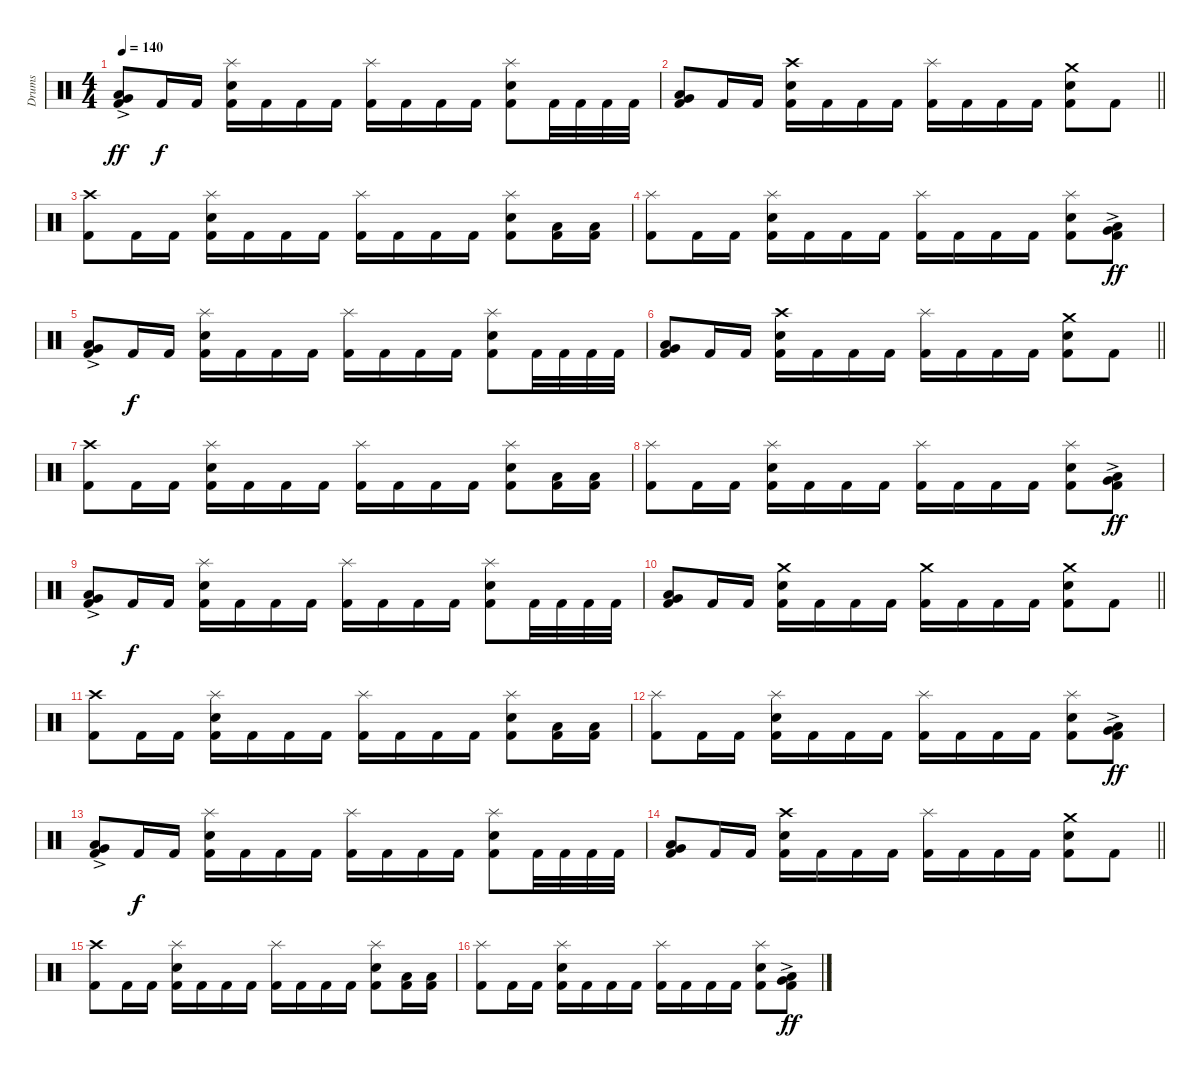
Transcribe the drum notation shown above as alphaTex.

\track ("Drums" "Drums") {instrument percussion}
\staff {score}
\articulation defaults
\ts (4 4)
\tempo 140
\clef neutral
\ks c
("Kick (hit) 2" "Very Low Tom (hit)"{ac} "Low Floor Tom (hit)"{ac}).8{dy ff} "Kick (hit) 2".16{dy f} "Kick (hit) 2".16 ("Kick (hit) 2" "Snare (hit) 2" "Splash (hit)").16 "Kick (hit) 2".16 "Kick (hit) 2".16 "Kick (hit) 2".16 ("Kick (hit) 2" "Splash (hit)").16 "Kick (hit) 2".16 "Kick (hit) 2".16 "Kick (hit) 2".16 ("Kick (hit) 2" "Snare (hit) 2" "Splash (hit)").8 "Kick (hit) 2".32 "Kick (hit) 2".32 "Kick (hit) 2".32 "Kick (hit) 2".32 |
\barLineRight lightlight
("Kick (hit) 2" "Very Low Tom (hit)" "Low Floor Tom (hit)").8 "Kick (hit) 2".16 "Kick (hit) 2".16 ("Kick (hit) 2" "Snare (hit) 2" "Crash high (hit)").16 "Kick (hit) 2".16 "Kick (hit) 2".16 "Kick (hit) 2".16 ("Kick (hit) 2" "Splash (hit)").16 "Kick (hit) 2".16 "Kick (hit) 2".16 "Kick (hit) 2".16 ("Kick (hit) 2" "Snare (hit) 2" "Crash medium (hit)").8 "Kick (hit) 2".8 |
\section ("" "")
("Kick (hit) 2" "Crash high (hit)").8 "Kick (hit) 2".16 "Kick (hit) 2".16 ("Kick (hit) 2" "Snare (hit) 2" "Splash (hit)").16 "Kick (hit) 2".16 "Kick (hit) 2".16 "Kick (hit) 2".16 ("Kick (hit) 2" "Splash (hit)").16 "Kick (hit) 2".16 "Kick (hit) 2".16 "Kick (hit) 2".16 ("Kick (hit) 2" "Snare (hit) 2" "Splash (hit)").8 ("Kick (hit) 2" "Low Tom (hit)").16 ("Kick (hit) 2" "Low Tom (hit)").16 |
("Kick (hit) 2" "Splash (hit)").8 "Kick (hit) 2".16 "Kick (hit) 2".16 ("Kick (hit) 2" "Snare (hit) 2" "Splash (hit)").16 "Kick (hit) 2".16 "Kick (hit) 2".16 "Kick (hit) 2".16 ("Kick (hit) 2" "Splash (hit)").16 "Kick (hit) 2".16 "Kick (hit) 2".16 "Kick (hit) 2".16 ("Kick (hit) 2" "Snare (hit) 2" "Splash (hit)").8 ("Kick (hit) 2" "Low Tom (hit)"{ac} "Very Low Tom (hit)"{ac}).8{dy ff} |
("Kick (hit) 2" "Very Low Tom (hit)"{ac} "Low Floor Tom (hit)"{ac}).8 "Kick (hit) 2".16{dy f} "Kick (hit) 2".16 ("Kick (hit) 2" "Snare (hit) 2" "Splash (hit)").16 "Kick (hit) 2".16 "Kick (hit) 2".16 "Kick (hit) 2".16 ("Kick (hit) 2" "Splash (hit)").16 "Kick (hit) 2".16 "Kick (hit) 2".16 "Kick (hit) 2".16 ("Kick (hit) 2" "Snare (hit) 2" "Splash (hit)").8 "Kick (hit) 2".32 "Kick (hit) 2".32 "Kick (hit) 2".32 "Kick (hit) 2".32 |
\barLineRight lightlight
("Kick (hit) 2" "Very Low Tom (hit)" "Low Floor Tom (hit)").8 "Kick (hit) 2".16 "Kick (hit) 2".16 ("Kick (hit) 2" "Snare (hit) 2" "Crash high (hit)").16 "Kick (hit) 2".16 "Kick (hit) 2".16 "Kick (hit) 2".16 ("Kick (hit) 2" "Splash (hit)").16 "Kick (hit) 2".16 "Kick (hit) 2".16 "Kick (hit) 2".16 ("Kick (hit) 2" "Snare (hit) 2" "Crash medium (hit)").8 "Kick (hit) 2".8 |
\section ("" "")
("Kick (hit) 2" "Crash high (hit)").8 "Kick (hit) 2".16 "Kick (hit) 2".16 ("Kick (hit) 2" "Snare (hit) 2" "Splash (hit)").16 "Kick (hit) 2".16 "Kick (hit) 2".16 "Kick (hit) 2".16 ("Kick (hit) 2" "Splash (hit)").16 "Kick (hit) 2".16 "Kick (hit) 2".16 "Kick (hit) 2".16 ("Kick (hit) 2" "Snare (hit) 2" "Splash (hit)").8 ("Kick (hit) 2" "Low Tom (hit)").16 ("Kick (hit) 2" "Low Tom (hit)").16 |
("Kick (hit) 2" "Splash (hit)").8 "Kick (hit) 2".16 "Kick (hit) 2".16 ("Kick (hit) 2" "Snare (hit) 2" "Splash (hit)").16 "Kick (hit) 2".16 "Kick (hit) 2".16 "Kick (hit) 2".16 ("Kick (hit) 2" "Splash (hit)").16 "Kick (hit) 2".16 "Kick (hit) 2".16 "Kick (hit) 2".16 ("Kick (hit) 2" "Snare (hit) 2" "Splash (hit)").8 ("Kick (hit) 2" "Low Tom (hit)"{ac} "Very Low Tom (hit)"{ac}).8{dy ff} |
("Kick (hit) 2" "Very Low Tom (hit)"{ac} "Low Floor Tom (hit)"{ac}).8 "Kick (hit) 2".16{dy f} "Kick (hit) 2".16 ("Kick (hit) 2" "Snare (hit) 2" "Splash (hit)").16 "Kick (hit) 2".16 "Kick (hit) 2".16 "Kick (hit) 2".16 ("Kick (hit) 2" "Splash (hit)").16 "Kick (hit) 2".16 "Kick (hit) 2".16 "Kick (hit) 2".16 ("Kick (hit) 2" "Snare (hit) 2" "Splash (hit)").8 "Kick (hit) 2".32 "Kick (hit) 2".32 "Kick (hit) 2".32 "Kick (hit) 2".32 |
\barLineRight lightlight
("Kick (hit) 2" "Very Low Tom (hit)" "Low Floor Tom (hit)").8 "Kick (hit) 2".16 "Kick (hit) 2".16 ("Kick (hit) 2" "Snare (hit) 2" "Crash medium (hit)").16 "Kick (hit) 2".16 "Kick (hit) 2".16 "Kick (hit) 2".16 ("Kick (hit) 2" "Crash medium (hit)").16 "Kick (hit) 2".16 "Kick (hit) 2".16 "Kick (hit) 2".16 ("Kick (hit) 2" "Snare (hit) 2" "Crash medium (hit)").8 "Kick (hit) 2".8 |
\section ("" "")
("Kick (hit) 2" "Crash high (hit)").8 "Kick (hit) 2".16 "Kick (hit) 2".16 ("Kick (hit) 2" "Snare (hit) 2" "Splash (hit)").16 "Kick (hit) 2".16 "Kick (hit) 2".16 "Kick (hit) 2".16 ("Kick (hit) 2" "Splash (hit)").16 "Kick (hit) 2".16 "Kick (hit) 2".16 "Kick (hit) 2".16 ("Kick (hit) 2" "Snare (hit) 2" "Splash (hit)").8 ("Kick (hit) 2" "Low Tom (hit)").16 ("Kick (hit) 2" "Low Tom (hit)").16 |
("Kick (hit) 2" "Splash (hit)").8 "Kick (hit) 2".16 "Kick (hit) 2".16 ("Kick (hit) 2" "Snare (hit) 2" "Splash (hit)").16 "Kick (hit) 2".16 "Kick (hit) 2".16 "Kick (hit) 2".16 ("Kick (hit) 2" "Splash (hit)").16 "Kick (hit) 2".16 "Kick (hit) 2".16 "Kick (hit) 2".16 ("Kick (hit) 2" "Snare (hit) 2" "Splash (hit)").8 ("Kick (hit) 2" "Low Tom (hit)"{ac} "Very Low Tom (hit)"{ac}).8{dy ff} |
("Kick (hit) 2" "Very Low Tom (hit)"{ac} "Low Floor Tom (hit)"{ac}).8 "Kick (hit) 2".16{dy f} "Kick (hit) 2".16 ("Kick (hit) 2" "Snare (hit) 2" "Splash (hit)").16 "Kick (hit) 2".16 "Kick (hit) 2".16 "Kick (hit) 2".16 ("Kick (hit) 2" "Splash (hit)").16 "Kick (hit) 2".16 "Kick (hit) 2".16 "Kick (hit) 2".16 ("Kick (hit) 2" "Snare (hit) 2" "Splash (hit)").8 "Kick (hit) 2".32 "Kick (hit) 2".32 "Kick (hit) 2".32 "Kick (hit) 2".32 |
\barLineRight lightlight
("Kick (hit) 2" "Very Low Tom (hit)" "Low Floor Tom (hit)").8 "Kick (hit) 2".16 "Kick (hit) 2".16 ("Kick (hit) 2" "Snare (hit) 2" "Crash high (hit)").16 "Kick (hit) 2".16 "Kick (hit) 2".16 "Kick (hit) 2".16 ("Kick (hit) 2" "Splash (hit)").16 "Kick (hit) 2".16 "Kick (hit) 2".16 "Kick (hit) 2".16 ("Kick (hit) 2" "Snare (hit) 2" "Crash medium (hit)").8 "Kick (hit) 2".8 |
\section ("" "")
("Kick (hit) 2" "Crash high (hit)").8 "Kick (hit) 2".16 "Kick (hit) 2".16 ("Kick (hit) 2" "Snare (hit) 2" "Splash (hit)").16 "Kick (hit) 2".16 "Kick (hit) 2".16 "Kick (hit) 2".16 ("Kick (hit) 2" "Splash (hit)").16 "Kick (hit) 2".16 "Kick (hit) 2".16 "Kick (hit) 2".16 ("Kick (hit) 2" "Snare (hit) 2" "Splash (hit)").8 ("Kick (hit) 2" "Low Tom (hit)").16 ("Kick (hit) 2" "Low Tom (hit)").16 |
("Kick (hit) 2" "Splash (hit)").8 "Kick (hit) 2".16 "Kick (hit) 2".16 ("Kick (hit) 2" "Snare (hit) 2" "Splash (hit)").16 "Kick (hit) 2".16 "Kick (hit) 2".16 "Kick (hit) 2".16 ("Kick (hit) 2" "Splash (hit)").16 "Kick (hit) 2".16 "Kick (hit) 2".16 "Kick (hit) 2".16 ("Kick (hit) 2" "Snare (hit) 2" "Splash (hit)").8 ("Kick (hit) 2" "Low Tom (hit)"{ac} "Very Low Tom (hit)"{ac}).8{dy ff}
